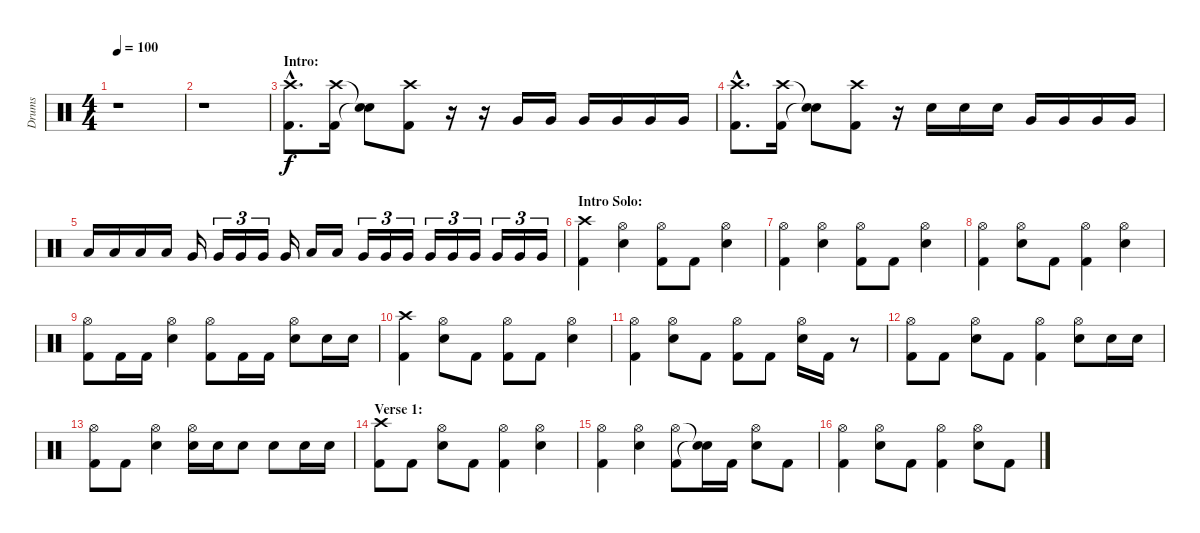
\track ("Drums" "Drums") {instrument percussion}
\staff {score}
\articulation defaults
\ts (4 4)
\tempo 100
\clef neutral
\ks c
r.1{dy f} |
r.1 |
\section ("" "Intro:")
("Crash high (hit)"{hac} "Kick (hit) 2"{hac}).8{d} ("Crash high (hit)" "Kick (hit) 2").16 ("Snare (hit)"{t} "Snare (hit)"{t}).8 ("Crash high (hit)" "Kick (hit) 2").8 r.16 r.16 "Very Low Tom (hit)".16 "Very Low Tom (hit)".16 "Very Low Tom (hit)".16 "Very Low Tom (hit)".16 "Very Low Tom (hit)".16 "Very Low Tom (hit)".16 |
("Crash high (hit)"{hac} "Kick (hit) 2"{hac}).8{d} ("Crash high (hit)" "Kick (hit) 2").16 ("Snare (hit)"{t} "Snare (hit)"{t}).8 ("Crash high (hit)" "Kick (hit) 2").8 r.16 "Electric Snare (hit)".16 "Electric Snare (hit)".16 "Electric Snare (hit)".16 "Very Low Tom (hit)".16 "Very Low Tom (hit)".16 "Very Low Tom (hit)".16 "Very Low Tom (hit)".16 |
"Low Tom (hit)".16 "Low Tom (hit)".16 "Low Tom (hit)".16 "Low Tom (hit)".16 "Very Low Tom (hit)".16 "Very Low Tom (hit)".16{tu (3 2)} "Very Low Tom (hit)".16{tu (3 2)} "Very Low Tom (hit)".16{tu (3 2)} "Very Low Tom (hit)".16 "Low Floor Tom (hit)".16 "Low Floor Tom (hit)".16 "Very Low Tom (hit)".16{tu (3 2)} "Very Low Tom (hit)".16{tu (3 2)} "Very Low Tom (hit)".16{tu (3 2)} "Very Low Tom (hit)".16{tu (3 2)} "Very Low Tom (hit)".16{tu (3 2)} "Very Low Tom (hit)".16{tu (3 2)} "Very Low Tom (hit)".16{tu (3 2)} "Very Low Tom (hit)".16{tu (3 2)} "Very Low Tom (hit)".16{tu (3 2)} |
\section ("" "Intro Solo:")
("Crash high (hit)" "Kick (hit) 2").4 ("Hi-Hat (open)" "Electric Snare (hit)").4 ("Hi-Hat (open)" "Kick (hit) 2").8 "Kick (hit) 2".8 ("Hi-Hat (open)" "Electric Snare (hit)").4 |
("Hi-Hat (open)" "Kick (hit) 2").4 ("Hi-Hat (open)" "Electric Snare (hit)").4 ("Hi-Hat (open)" "Kick (hit) 2").8 "Kick (hit) 2".8 ("Hi-Hat (open)" "Electric Snare (hit)").4 |
("Hi-Hat (open)" "Kick (hit) 2").4 ("Hi-Hat (open)" "Electric Snare (hit)").8 "Kick (hit) 2".8 ("Hi-Hat (open)" "Kick (hit) 2").4 ("Hi-Hat (open)" "Electric Snare (hit)").4 |
("Hi-Hat (open)" "Kick (hit) 2").8 "Kick (hit) 2".16 "Kick (hit) 2".16 ("Hi-Hat (open)" "Electric Snare (hit)").4 ("Hi-Hat (open)" "Kick (hit) 2").8 "Kick (hit) 2".16 "Kick (hit) 2".16 ("Hi-Hat (open)" "Electric Snare (hit)").8 "Electric Snare (hit)".16 "Electric Snare (hit)".16 |
("Crash high (hit)" "Kick (hit) 2").4 ("Hi-Hat (open)" "Electric Snare (hit)").8 "Kick (hit) 2".8 ("Hi-Hat (open)" "Kick (hit) 2").8 "Kick (hit) 2".8 ("Hi-Hat (open)" "Electric Snare (hit)").4 |
("Hi-Hat (open)" "Kick (hit) 2").4 ("Hi-Hat (open)" "Electric Snare (hit)").8 "Kick (hit) 2".8 ("Hi-Hat (open)" "Kick (hit) 2").8 "Kick (hit) 2".8 ("Hi-Hat (open)" "Electric Snare (hit)").16 "Kick (hit) 2".16 r.8 |
("Hi-Hat (open)" "Kick (hit) 2").8 "Kick (hit) 2".8 ("Hi-Hat (open)" "Electric Snare (hit)").8 "Kick (hit) 2".8 ("Hi-Hat (open)" "Kick (hit) 2").4 ("Hi-Hat (open)" "Electric Snare (hit)").8 "Electric Snare (hit)".16 "Electric Snare (hit)".16 |
("Hi-Hat (open)" "Kick (hit) 2").8 "Kick (hit) 2".8 ("Hi-Hat (open)" "Electric Snare (hit)").4 ("Hi-Hat (open)" "Electric Snare (hit)").16 "Electric Snare (hit)".16 "Electric Snare (hit)".8 "Electric Snare (hit)".8 "Electric Snare (hit)".16 "Electric Snare (hit)".16 |
\section ("" "Verse 1:")
("Crash high (hit)" "Kick (hit) 2").8 "Kick (hit) 2".8 ("Hi-Hat (open)" "Electric Snare (hit)").8 "Kick (hit) 2".8 ("Hi-Hat (open)" "Kick (hit) 2").4 ("Hi-Hat (open)" "Electric Snare (hit)").4 |
("Hi-Hat (open)" "Kick (hit) 2").4 ("Hi-Hat (open)" "Electric Snare (hit)").4 ("Hi-Hat (open)" "Kick (hit) 2").8 ("Snare (hit)"{t} "Snare (hit)"{t}).16 "Kick (hit) 2".16 ("Hi-Hat (open)" "Electric Snare (hit)").8 "Kick (hit) 2".8 |
("Hi-Hat (open)" "Kick (hit) 2").4 ("Hi-Hat (open)" "Electric Snare (hit)").8 "Kick (hit) 2".8 ("Hi-Hat (open)" "Kick (hit) 2").4 ("Hi-Hat (open)" "Electric Snare (hit)").8 "Kick (hit) 2".8
